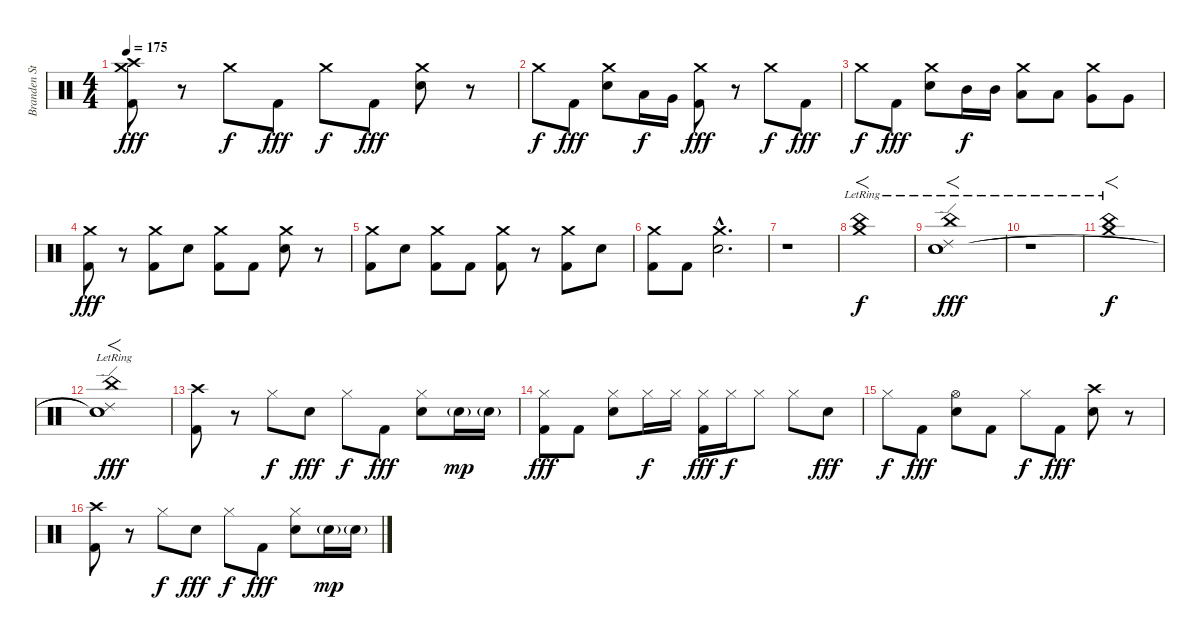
\track ("Branden Steineckert (Drums)" "Branden St") {instrument percussion}
\staff {score}
\articulation defaults
\ts (4 4)
\tempo 175
\clef neutral
\ks c
("Kick (hit) 2" "Crash high (hit)" "Crash medium (hit)").8{dy fff} r.8 "Crash medium (hit)".8{dy f} "Kick (hit) 2".8{dy fff} "Crash medium (hit)".8{dy f} "Kick (hit) 2".8{dy fff} ("Electric Snare (hit)" "Crash medium (hit)").8 r.8 |
"Crash medium (hit)".8{dy f} "Kick (hit) 2".8{dy fff} ("Electric Snare (hit)" "Crash medium (hit)").8 "Low Tom (hit)".16{dy f} "Very Low Tom (hit)".16 ("Kick (hit) 2" "Crash medium (hit)").8{dy fff} r.8 "Crash medium (hit)".8{dy f} "Kick (hit) 2".8{dy fff} |
"Crash medium (hit)".8{dy f} "Kick (hit) 2".8{dy fff} ("Electric Snare (hit)" "Crash medium (hit)").8 "Mid Tom (hit)".16{dy f} "Mid Tom (hit)".16 ("Low Tom (hit)" "Crash medium (hit)").8 "Low Tom (hit)".8 ("Very Low Tom (hit)" "Crash medium (hit)").8 "Very Low Tom (hit)".8 |
("Kick (hit) 2" "Crash medium (hit)").8{dy fff} r.8 ("Kick (hit) 2" "Crash medium (hit)").8 "Electric Snare (hit)".8 ("Kick (hit) 2" "Crash medium (hit)").8 "Kick (hit) 2".8 ("Electric Snare (hit)" "Crash medium (hit)").8 r.8 |
("Kick (hit) 2" "Crash medium (hit)").8 "Electric Snare (hit)".8 ("Kick (hit) 2" "Crash medium (hit)").8 "Kick (hit) 2".8 ("Kick (hit) 2" "Crash medium (hit)").8 r.8 ("Kick (hit) 2" "Crash medium (hit)").8 "Electric Snare (hit)".8 |
("Kick (hit) 2" "Crash medium (hit)").8 "Kick (hit) 2".8 ("Electric Snare (hit)"{hac} "Crash medium (hit)"{hac}).2{d} |
r.1 |
("Crash medium (hit)"{lr} "China (hit)"{lr}).1{f dy f} |
("Ride (edge) 2"{lr} "China (hit)"{lr} "Snare (hit)" "Snare (hit)").1{f dy fff} |
r.1 |
("Crash medium (hit)"{lr} "China (hit)"{lr}).1{f dy f} |
("Ride (edge) 2"{lr} "China (hit)"{lr} "Snare (hit)"{t} "Snare (hit)"{t}).1{f dy fff} |
("Kick (hit) 2" "Crash high (hit)").8 r.8 "Hi-Hat (closed)".8{dy f} "Electric Snare (hit)".8{dy fff} "Hi-Hat (closed)".8{dy f} "Kick (hit) 2".8{dy fff} ("Electric Snare (hit)" "Hi-Hat (closed)").8 "Electric Snare (hit)"{g}.16{dy mp} "Electric Snare (hit)"{g}.16 |
("Kick (hit) 2" "Hi-Hat (closed)").8{dy fff} "Kick (hit) 2".8 ("Electric Snare (hit)" "Hi-Hat (closed)").8 "Hi-Hat (closed)".16{dy f} "Hi-Hat (closed)".16 ("Kick (hit) 2" "Hi-Hat (closed)").16{dy fff} "Hi-Hat (closed)".16{dy f} "Hi-Hat (closed)".8 "Hi-Hat (closed)".8 "Electric Snare (hit)".8{dy fff} |
"Hi-Hat (closed)".8{dy f} "Kick (hit) 2".8{dy fff} ("Electric Snare (hit)" "Hi-Hat (open)").8 "Kick (hit) 2".8 "Hi-Hat (closed)".8{dy f} "Kick (hit) 2".8{dy fff} ("Electric Snare (hit)" "Crash high (hit)").8 r.8 |
("Kick (hit) 2" "Crash high (hit)").8 r.8 "Hi-Hat (closed)".8{dy f} "Electric Snare (hit)".8{dy fff} "Hi-Hat (closed)".8{dy f} "Kick (hit) 2".8{dy fff} ("Electric Snare (hit)" "Hi-Hat (closed)").8 "Electric Snare (hit)"{g}.16{dy mp} "Electric Snare (hit)"{g}.16
